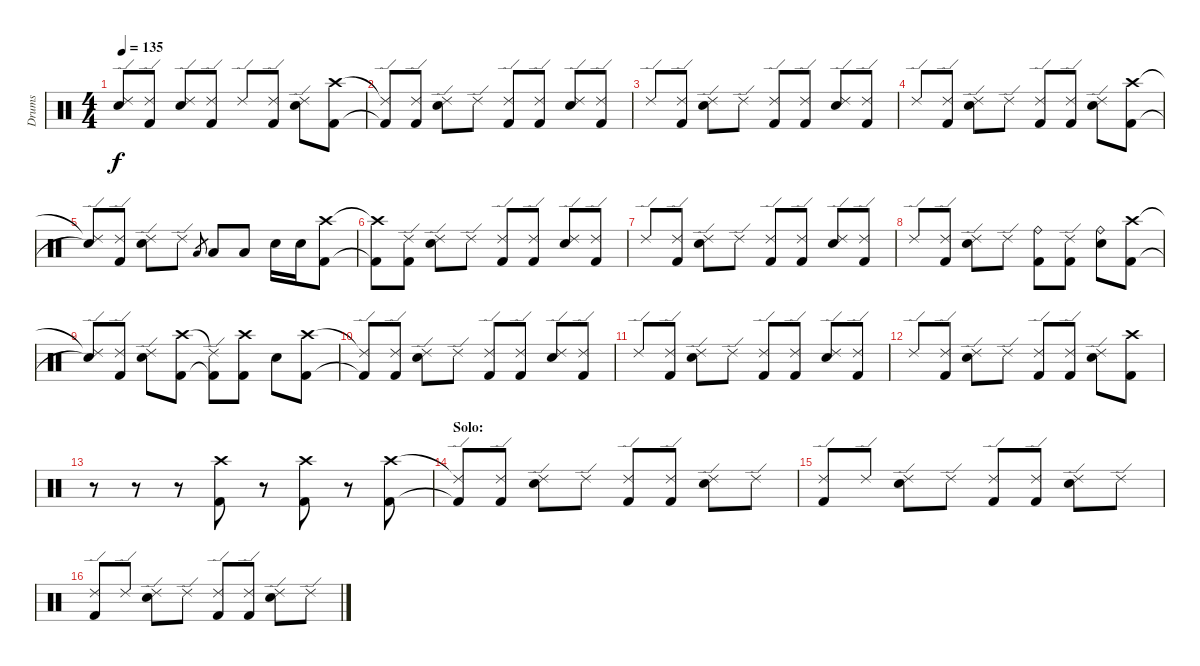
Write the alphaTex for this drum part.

\track ("Drums" "Drums") {instrument percussion}
\staff {score}
\articulation defaults
\ts (4 4)
\tempo 135
\clef neutral
\ks c
("Ride (edge) 2"{t} "Snare (hit)"{t}).8{dy f} ("Ride (edge) 2" "Kick (hit) 2").8 ("Ride (edge) 2" "Electric Snare (hit)").8 ("Ride (edge) 2" "Kick (hit) 2").8 "Ride (edge) 2".8 ("Ride (edge) 2" "Kick (hit) 2").8 ("Ride (edge) 2" "Electric Snare (hit)").8 ("Crash high (hit)" "Kick (hit) 2").8 |
("Ride (edge) 2"{t} "Kick (hit) 2"{t}).8 ("Ride (edge) 2" "Kick (hit) 2").8 ("Ride (edge) 2" "Electric Snare (hit)").8 "Ride (edge) 2".8 ("Ride (edge) 2" "Kick (hit) 2").8 ("Ride (edge) 2" "Kick (hit) 2").8 ("Ride (edge) 2" "Electric Snare (hit)").8 ("Ride (edge) 2" "Kick (hit) 2").8 |
"Ride (edge) 2".8 ("Ride (edge) 2" "Kick (hit) 2").8 ("Ride (edge) 2" "Electric Snare (hit)").8 "Ride (edge) 2".8 ("Ride (edge) 2" "Kick (hit) 2").8 ("Ride (edge) 2" "Kick (hit) 2").8 ("Ride (edge) 2" "Electric Snare (hit)").8 ("Ride (edge) 2" "Kick (hit) 2").8 |
"Ride (edge) 2".8 ("Ride (edge) 2" "Kick (hit) 2").8 ("Ride (edge) 2" "Electric Snare (hit)").8 "Ride (edge) 2".8 ("Ride (edge) 2" "Kick (hit) 2").8 ("Ride (edge) 2" "Kick (hit) 2").8 ("Ride (edge) 2" "Electric Snare (hit)").8 ("Crash high (hit)" "Kick (hit) 2").8 |
("Ride (edge) 2"{t} "Snare (hit)"{t}).8 ("Ride (edge) 2" "Kick (hit) 2").8 ("Ride (edge) 2" "Electric Snare (hit)").8 "Ride (edge) 2".8 "Low Tom (hit)".8{gr} "Low Tom (hit)".8 "Low Tom (hit)".8 "Electric Snare (hit)".16 "Electric Snare (hit)".16 ("Crash high (hit)" "Kick (hit) 2").8 |
("Crash high (hit)"{t} "Kick (hit) 2"{t}).8 ("Ride (edge) 2" "Kick (hit) 2").8 ("Ride (edge) 2" "Electric Snare (hit)").8 "Ride (edge) 2".8 ("Ride (edge) 2" "Kick (hit) 2").8 ("Ride (edge) 2" "Kick (hit) 2").8 ("Ride (edge) 2" "Electric Snare (hit)").8 ("Ride (edge) 2" "Kick (hit) 2").8 |
"Ride (edge) 2".8 ("Ride (edge) 2" "Kick (hit) 2").8 ("Ride (edge) 2" "Electric Snare (hit)").8 "Ride (edge) 2".8 ("Ride (edge) 2" "Kick (hit) 2").8 ("Ride (edge) 2" "Kick (hit) 2").8 ("Ride (edge) 2" "Electric Snare (hit)").8 ("Ride (edge) 2" "Kick (hit) 2").8 |
"Ride (edge) 2".8 ("Ride (edge) 2" "Kick (hit) 2").8 ("Ride (edge) 2" "Electric Snare (hit)").8 "Ride (edge) 2".8 ("Ride (bell)" "Kick (hit) 2").8 ("Ride (edge) 2" "Kick (hit) 2").8 ("Ride (bell)" "Electric Snare (hit)").8 ("Crash high (hit)" "Kick (hit) 2").8 |
("Ride (edge) 2"{t} "Snare (hit)"{t}).8 ("Ride (edge) 2" "Kick (hit) 2").8 ("Ride (edge) 2" "Electric Snare (hit)").8 ("Crash high (hit)" "Kick (hit) 2").8 ("Ride (edge) 2"{t} "Kick (hit) 2"{t}).8 ("Crash high (hit)" "Kick (hit) 2").8 "Electric Snare (hit)".8 ("Crash high (hit)" "Kick (hit) 2").8 |
("Ride (edge) 2"{t} "Kick (hit) 2"{t}).8 ("Ride (edge) 2" "Kick (hit) 2").8 ("Ride (edge) 2" "Electric Snare (hit)").8 "Ride (edge) 2".8 ("Ride (edge) 2" "Kick (hit) 2").8 ("Ride (edge) 2" "Kick (hit) 2").8 ("Ride (edge) 2" "Electric Snare (hit)").8 ("Ride (edge) 2" "Kick (hit) 2").8 |
"Ride (edge) 2".8 ("Ride (edge) 2" "Kick (hit) 2").8 ("Ride (edge) 2" "Electric Snare (hit)").8 "Ride (edge) 2".8 ("Ride (edge) 2" "Kick (hit) 2").8 ("Ride (edge) 2" "Kick (hit) 2").8 ("Ride (edge) 2" "Electric Snare (hit)").8 ("Ride (edge) 2" "Kick (hit) 2").8 |
"Ride (edge) 2".8 ("Ride (edge) 2" "Kick (hit) 2").8 ("Ride (edge) 2" "Electric Snare (hit)").8 "Ride (edge) 2".8 ("Ride (edge) 2" "Kick (hit) 2").8 ("Ride (edge) 2" "Kick (hit) 2").8 ("Ride (edge) 2" "Electric Snare (hit)").8 ("Crash high (hit)" "Kick (hit) 2").8 |
r.8 r.8 r.8 ("Crash high (hit)" "Kick (hit) 2").8 r.8 ("Crash high (hit)" "Kick (hit) 2").8 r.8 ("Crash high (hit)" "Kick (hit) 2").8 |
\section ("" "Solo:")
("Ride (edge) 2"{t} "Kick (hit) 2"{t}).8 ("Ride (edge) 2" "Kick (hit) 2").8 ("Ride (edge) 2" "Electric Snare (hit)").8 "Ride (edge) 2".8 ("Ride (edge) 2" "Kick (hit) 2").8 ("Ride (edge) 2" "Kick (hit) 2").8 ("Ride (edge) 2" "Electric Snare (hit)").8 "Ride (edge) 2".8 |
("Ride (edge) 2" "Kick (hit) 2").8 "Ride (edge) 2".8 ("Ride (edge) 2" "Electric Snare (hit)").8 "Ride (edge) 2".8 ("Ride (edge) 2" "Kick (hit) 2").8 ("Ride (edge) 2" "Kick (hit) 2").8 ("Ride (edge) 2" "Electric Snare (hit)").8 "Ride (edge) 2".8 |
("Ride (edge) 2" "Kick (hit) 2").8 "Ride (edge) 2".8 ("Ride (edge) 2" "Electric Snare (hit)").8 "Ride (edge) 2".8 ("Ride (edge) 2" "Kick (hit) 2").8 ("Ride (edge) 2" "Kick (hit) 2").8 ("Ride (edge) 2" "Electric Snare (hit)").8 "Ride (edge) 2".8
